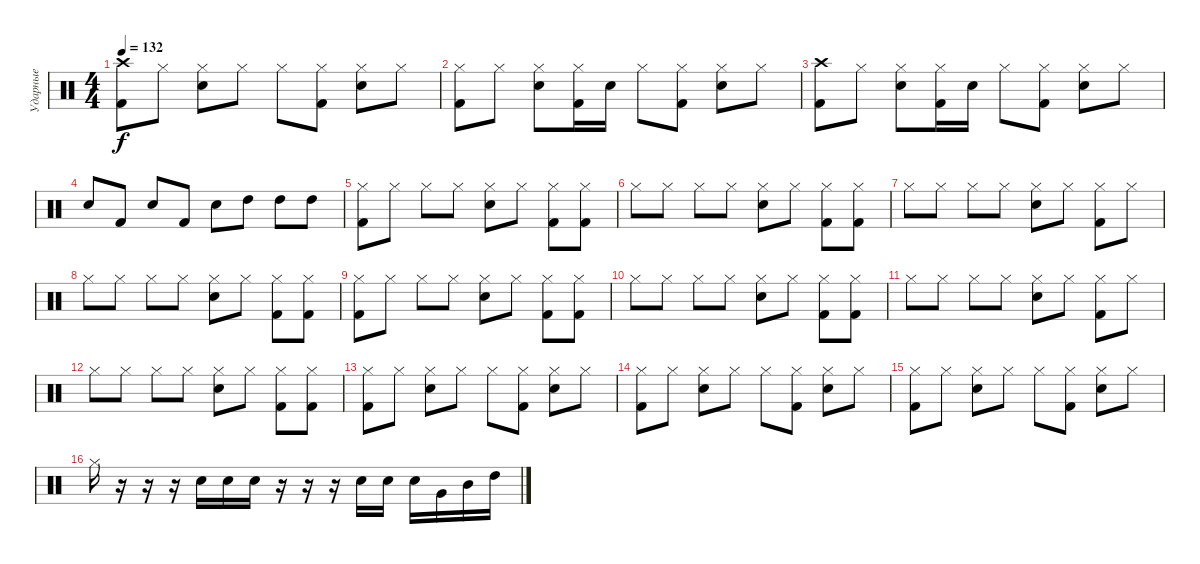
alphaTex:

\track ("Ударные" "Ударные") {instrument percussion}
\staff {score}
\articulation defaults
\ts (4 4)
\tempo 132
\clef neutral
\ks c
("Kick (hit) 2" "Crash high (hit)").8{dy f} "Hi-Hat (closed)".8 ("Electric Snare (hit)" "Hi-Hat (closed)").8 "Hi-Hat (closed)".8 "Hi-Hat (closed)".8 ("Kick (hit) 2" "Hi-Hat (closed)").8 ("Electric Snare (hit)" "Hi-Hat (closed)").8 "Hi-Hat (closed)".8 |
("Kick (hit) 2" "Hi-Hat (closed)").8 "Hi-Hat (closed)".8 ("Electric Snare (hit)" "Hi-Hat (closed)").8 ("Kick (hit) 2" "Hi-Hat (closed)").16 "Electric Snare (hit)".16 "Hi-Hat (closed)".8 ("Kick (hit) 2" "Hi-Hat (closed)").8 ("Electric Snare (hit)" "Hi-Hat (closed)").8 "Hi-Hat (closed)".8 |
("Kick (hit) 2" "Crash high (hit)").8 "Hi-Hat (closed)".8 ("Electric Snare (hit)" "Hi-Hat (closed)").8 ("Kick (hit) 2" "Hi-Hat (closed)").16 "Electric Snare (hit)".16 "Hi-Hat (closed)".8 ("Kick (hit) 2" "Hi-Hat (closed)").8 ("Electric Snare (hit)" "Hi-Hat (closed)").8 "Hi-Hat (closed)".8 |
"Electric Snare (hit)".8 "Kick (hit) 2".8 "Electric Snare (hit)".8 "Kick (hit) 2".8 "Electric Snare (hit)".8 "High Tom (hit)".8 "High Tom (hit)".8 "High Tom (hit)".8 |
("Kick (hit) 2" "Hi-Hat (closed)").8 "Hi-Hat (closed)".8 "Hi-Hat (closed)".8 "Hi-Hat (closed)".8 ("Electric Snare (hit)" "Hi-Hat (closed)").8 "Hi-Hat (closed)".8 ("Kick (hit) 2" "Hi-Hat (closed)").8 ("Kick (hit) 2" "Hi-Hat (closed)").8 |
"Hi-Hat (closed)".8 "Hi-Hat (closed)".8 "Hi-Hat (closed)".8 "Hi-Hat (closed)".8 ("Electric Snare (hit)" "Hi-Hat (closed)").8 "Hi-Hat (closed)".8 ("Kick (hit) 2" "Hi-Hat (closed)").8 ("Kick (hit) 2" "Hi-Hat (closed)").8 |
"Hi-Hat (closed)".8 "Hi-Hat (closed)".8 "Hi-Hat (closed)".8 "Hi-Hat (closed)".8 ("Electric Snare (hit)" "Hi-Hat (closed)").8 "Hi-Hat (closed)".8 ("Kick (hit) 2" "Hi-Hat (closed)").8 "Hi-Hat (closed)".8 |
"Hi-Hat (closed)".8 "Hi-Hat (closed)".8 "Hi-Hat (closed)".8 "Hi-Hat (closed)".8 ("Electric Snare (hit)" "Hi-Hat (closed)").8 "Hi-Hat (closed)".8 ("Kick (hit) 2" "Hi-Hat (closed)").8 ("Kick (hit) 2" "Hi-Hat (closed)").8 |
("Kick (hit) 2" "Hi-Hat (closed)").8 "Hi-Hat (closed)".8 "Hi-Hat (closed)".8 "Hi-Hat (closed)".8 ("Electric Snare (hit)" "Hi-Hat (closed)").8 "Hi-Hat (closed)".8 ("Kick (hit) 2" "Hi-Hat (closed)").8 ("Kick (hit) 2" "Hi-Hat (closed)").8 |
"Hi-Hat (closed)".8 "Hi-Hat (closed)".8 "Hi-Hat (closed)".8 "Hi-Hat (closed)".8 ("Electric Snare (hit)" "Hi-Hat (closed)").8 "Hi-Hat (closed)".8 ("Kick (hit) 2" "Hi-Hat (closed)").8 ("Kick (hit) 2" "Hi-Hat (closed)").8 |
"Hi-Hat (closed)".8 "Hi-Hat (closed)".8 "Hi-Hat (closed)".8 "Hi-Hat (closed)".8 ("Electric Snare (hit)" "Hi-Hat (closed)").8 "Hi-Hat (closed)".8 ("Kick (hit) 2" "Hi-Hat (closed)").8 "Hi-Hat (closed)".8 |
"Hi-Hat (closed)".8 "Hi-Hat (closed)".8 "Hi-Hat (closed)".8 "Hi-Hat (closed)".8 ("Electric Snare (hit)" "Hi-Hat (closed)").8 "Hi-Hat (closed)".8 ("Kick (hit) 2" "Hi-Hat (closed)").8 ("Kick (hit) 2" "Hi-Hat (closed)").8 |
("Kick (hit) 2" "Hi-Hat (closed)").8 "Hi-Hat (closed)".8 ("Electric Snare (hit)" "Hi-Hat (closed)").8 "Hi-Hat (closed)".8 "Hi-Hat (closed)".8 ("Kick (hit) 2" "Hi-Hat (closed)").8 ("Electric Snare (hit)" "Hi-Hat (closed)").8 "Hi-Hat (closed)".8 |
("Kick (hit) 2" "Hi-Hat (closed)").8 "Hi-Hat (closed)".8 ("Electric Snare (hit)" "Hi-Hat (closed)").8 "Hi-Hat (closed)".8 "Hi-Hat (closed)".8 ("Kick (hit) 2" "Hi-Hat (closed)").8 ("Electric Snare (hit)" "Hi-Hat (closed)").8 "Hi-Hat (closed)".8 |
("Kick (hit) 2" "Hi-Hat (closed)").8 "Hi-Hat (closed)".8 ("Electric Snare (hit)" "Hi-Hat (closed)").8 "Hi-Hat (closed)".8 "Hi-Hat (closed)".8 ("Kick (hit) 2" "Hi-Hat (closed)").8 ("Electric Snare (hit)" "Hi-Hat (closed)").8 "Hi-Hat (closed)".8 |
"Hi-Hat (closed)".16 r.16 r.16 r.16 "Electric Snare (hit)".16 "Electric Snare (hit)".16 "Electric Snare (hit)".16 r.16 r.16 r.16 "Electric Snare (hit)".16 "Electric Snare (hit)".16 "Electric Snare (hit)".16 "Very Low Tom (hit)".16 "Mid Tom (hit)".16 "High Tom (hit)".16
